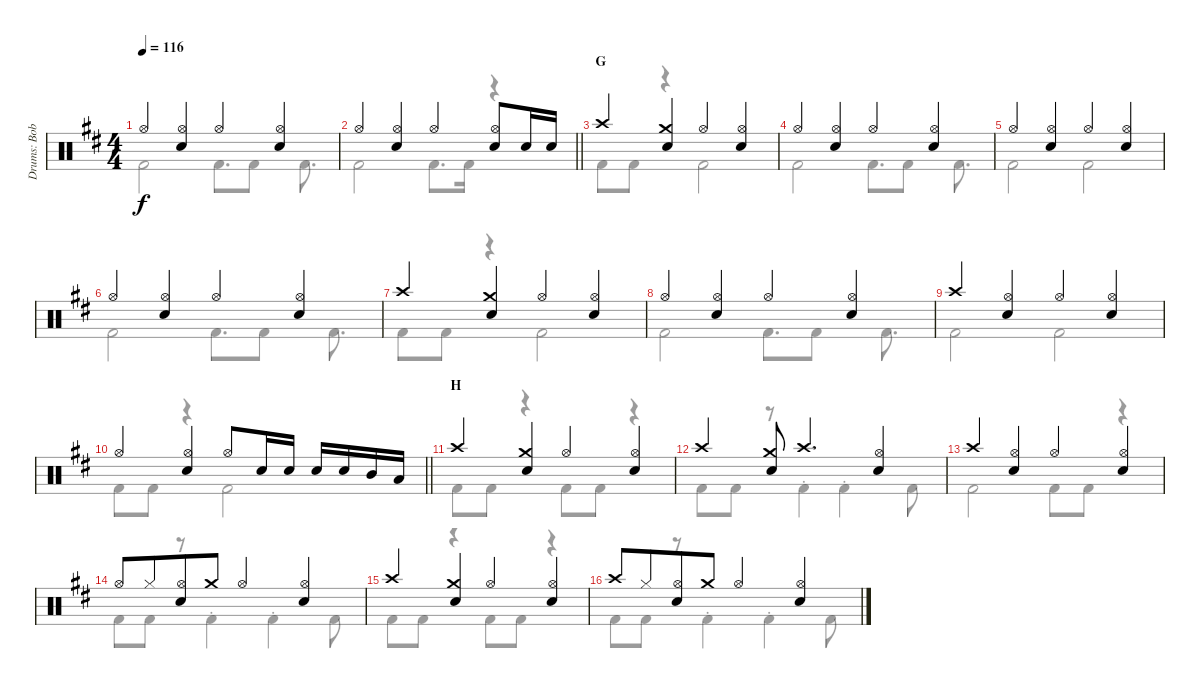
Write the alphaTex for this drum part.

\track ("Drums: Bobby" "Drums: Bob") {instrument percussion}
\staff {score}
\articulation defaults
\voice
\ts (4 4)
\tempo 116
\clef neutral
\ks d "Hi-Hat (open)".4{dy f}
("Hi-Hat (open)" "Snare (hit) 2").4 "Hi-Hat (open)".4 ("Hi-Hat (open)" "Snare (hit) 2").4 |
\barLineRight lightlight "Hi-Hat (open)".4
("Hi-Hat (open)" "Snare (hit) 2").4 "Hi-Hat (open)".4 ("Hi-Hat (open)" "Snare (hit) 2").8 "Snare (hit) 2".16 "Snare (hit) 2".16 |
\section ("" "G")
"Crash high (hit)".4 ("Crash medium (hit)" "Snare (hit) 2").4 "Hi-Hat (open)".4 ("Hi-Hat (open)" "Snare (hit) 2").4 |
"Hi-Hat (open)".4 ("Hi-Hat (open)" "Snare (hit) 2").4 "Hi-Hat (open)".4 ("Hi-Hat (open)" "Snare (hit) 2").4 |
"Hi-Hat (open)".4 ("Hi-Hat (open)" "Snare (hit) 2").4 "Hi-Hat (open)".4 ("Hi-Hat (open)" "Snare (hit) 2").4 |
"Hi-Hat (open)".4 ("Hi-Hat (open)" "Snare (hit) 2").4 "Hi-Hat (open)".4 ("Hi-Hat (open)" "Snare (hit) 2").4 |
"Crash high (hit)".4 ("Crash medium (hit)" "Snare (hit) 2").4 "Hi-Hat (open)".4 ("Hi-Hat (open)" "Snare (hit) 2").4 |
"Hi-Hat (open)".4 ("Hi-Hat (open)" "Snare (hit) 2").4 "Hi-Hat (open)".4 ("Hi-Hat (open)" "Snare (hit) 2").4 |
"Crash high (hit)".4 ("Hi-Hat (open)" "Snare (hit) 2").4 "Hi-Hat (open)".4 ("Hi-Hat (open)" "Snare (hit) 2").4 |
\barLineRight lightlight "Hi-Hat (open)".4
("Hi-Hat (open)" "Snare (hit) 2").4 "Hi-Hat (open)".8 "Snare (hit) 2".16 "Snare (hit) 2".16 "Snare (hit) 2".16 "Snare (hit) 2".16 "Mid Tom (hit)".16 "Low Tom (hit)".16 |
\section ("" "H")
"Crash high (hit)".4 ("Crash medium (hit)" "Snare (hit) 2").4 "Hi-Hat (open)".4 ("Hi-Hat (open)" "Snare (hit) 2").4 |
"Crash high (hit)".4 ("Crash medium (hit)" "Snare (hit) 2").8 "Crash high (hit)".4{d} ("Hi-Hat (open)" "Snare (hit) 2").4 |
"Crash high (hit)".4 ("Hi-Hat (open)" "Snare (hit) 2").4 "Hi-Hat (open)".4 ("Hi-Hat (open)" "Snare (hit) 2").4 |
"Hi-Hat (open)".8 "Hi-Hat (closed)".8{beam merge} ("Hi-Hat (open)" "Snare (hit) 2").8 "Crash medium (hit)".8 "Hi-Hat (open)".4 ("Hi-Hat (open)" "Snare (hit) 2").4 |
"Crash high (hit)".4 ("Crash medium (hit)" "Snare (hit) 2").4 "Hi-Hat (open)".4 ("Hi-Hat (open)" "Snare (hit) 2").4 |
"Crash high (hit)".8 "Hi-Hat (closed)".8{beam merge} ("Hi-Hat (open)" "Snare (hit) 2").8 "Crash medium (hit)".8 "Hi-Hat (open)".4 ("Hi-Hat (open)" "Snare (hit) 2").4
\voice
\clef neutral
\ottava regular
\simile none
\ks d "Kick (hit) 2".2{dy f} "Kick (hit) 2".8{d} "Kick (hit) 2".8 "Kick (hit) 2".8{d}
|
\barLineRight lightlight "Kick (hit) 2".2 "Kick (hit) 2".8{d} "Kick (hit) 2".16
r.4 |
"Kick (hit) 2".8 "Kick (hit) 2".8 r.4 "Kick (hit) 2".2 |
"Kick (hit) 2".2 "Kick (hit) 2".8{d} "Kick (hit) 2".8 "Kick (hit) 2".8{d} |
"Kick (hit) 2".2 "Kick (hit) 2".2 |
"Kick (hit) 2".2 "Kick (hit) 2".8{d} "Kick (hit) 2".8 "Kick (hit) 2".8{d} |
"Kick (hit) 2".8 "Kick (hit) 2".8 r.4 "Kick (hit) 2".2 |
"Kick (hit) 2".2 "Kick (hit) 2".8{d} "Kick (hit) 2".8 "Kick (hit) 2".8{d} |
"Kick (hit) 2".2 "Kick (hit) 2".2 |
\barLineRight lightlight "Kick (hit) 2".8 "Kick (hit) 2".8
r.4 "Kick (hit) 2".2 |
"Kick (hit) 2".8 "Kick (hit) 2".8 r.4 "Kick (hit) 2".8 "Kick (hit) 2".8 r.4 |
"Kick (hit) 2".8 "Kick (hit) 2".8 r.8 "Kick (hit) 2"{st}.4 "Kick (hit) 2"{st}.4 "Kick (hit) 2".8 |
"Kick (hit) 2".2 "Kick (hit) 2".8 "Kick (hit) 2".8 r.4 |
"Kick (hit) 2".8 "Kick (hit) 2".8 r.8 "Kick (hit) 2"{st}.4 "Kick (hit) 2"{st}.4 "Kick (hit) 2".8 |
"Kick (hit) 2".8 "Kick (hit) 2".8 r.4 "Kick (hit) 2".8 "Kick (hit) 2".8 r.4 |
"Kick (hit) 2".8 "Kick (hit) 2".8 r.8 "Kick (hit) 2"{st}.4 "Kick (hit) 2"{st}.4 "Kick (hit) 2".8
